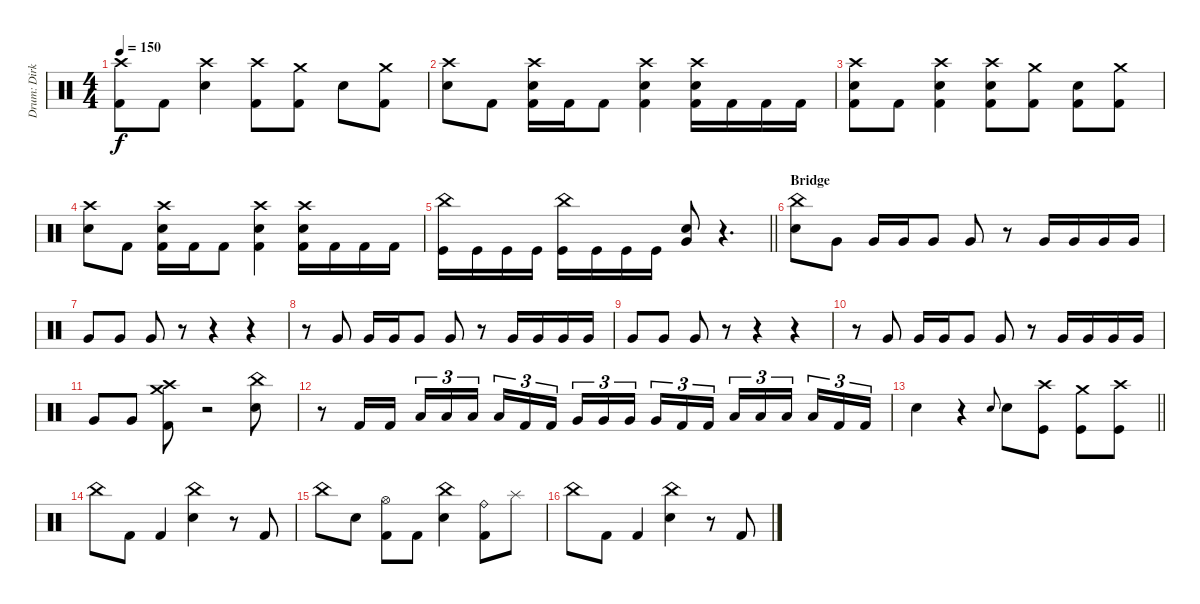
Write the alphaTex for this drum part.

\track ("Drum: Dirk" "Drum: Dirk") {instrument percussion}
\staff {score}
\articulation defaults
\ts (4 4)
\tempo 150
\clef neutral
\ks c
("Crash high (hit)" "Kick (hit) 2").8{dy f} "Kick (hit) 2".8 ("Crash high (hit)" "Electric Snare (hit)").4 ("Crash high (hit)" "Kick (hit) 2").8 ("Crash medium (hit)" "Kick (hit) 2").8 "Electric Snare (hit)".8 ("Crash medium (hit)" "Kick (hit) 2").8 |
("Crash high (hit)" "Electric Snare (hit)").8 "Kick (hit) 2".8 ("Crash high (hit)" "Electric Snare (hit)" "Kick (hit) 2").16 "Kick (hit) 2".16 "Kick (hit) 2".8 ("Crash high (hit)" "Electric Snare (hit)" "Kick (hit) 2").4 ("Crash high (hit)" "Electric Snare (hit)" "Kick (hit) 2").16 "Kick (hit) 2".16 "Kick (hit) 2".16 "Kick (hit) 2".16 |
("Crash high (hit)" "Electric Snare (hit)" "Kick (hit) 2").8 "Kick (hit) 2".8 ("Crash high (hit)" "Electric Snare (hit)" "Kick (hit) 2").4 ("Crash high (hit)" "Electric Snare (hit)" "Kick (hit) 2").8 ("Crash medium (hit)" "Kick (hit) 2").8 ("Electric Snare (hit)" "Kick (hit) 2").8 ("Crash medium (hit)" "Kick (hit) 2").8 |
("Crash high (hit)" "Electric Snare (hit)").8 "Kick (hit) 2".8 ("Crash high (hit)" "Electric Snare (hit)" "Kick (hit) 2").16 "Kick (hit) 2".16 "Kick (hit) 2".8 ("Crash high (hit)" "Electric Snare (hit)" "Kick (hit) 2").4 ("Crash high (hit)" "Electric Snare (hit)" "Kick (hit) 2").16 "Kick (hit) 2".16 "Kick (hit) 2".16 "Kick (hit) 2".16 |
\barLineRight lightlight
("China (hit)" "Kick (hit)").16 "Kick (hit)".16 "Kick (hit)".16 "Kick (hit)".16 ("China (hit)" "Kick (hit)").16 "Kick (hit)".16 "Kick (hit)".16 "Kick (hit)".16 ("Electric Snare (hit)" "Very Low Tom (hit)").8 r.4{d} |
\section ("" "Bridge")
("China (hit)" "Electric Snare (hit)").8 "Very Low Tom (hit)".8 "Very Low Tom (hit)".16 "Very Low Tom (hit)".16 "Very Low Tom (hit)".8 "Very Low Tom (hit)".8 r.8 "Very Low Tom (hit)".16 "Very Low Tom (hit)".16 "Very Low Tom (hit)".16 "Very Low Tom (hit)".16 |
"Very Low Tom (hit)".8 "Very Low Tom (hit)".8 "Very Low Tom (hit)".8 r.8 r.4 r.4 |
r.8 "Very Low Tom (hit)".8 "Very Low Tom (hit)".16 "Very Low Tom (hit)".16 "Very Low Tom (hit)".8 "Very Low Tom (hit)".8 r.8 "Very Low Tom (hit)".16 "Very Low Tom (hit)".16 "Very Low Tom (hit)".16 "Very Low Tom (hit)".16 |
"Very Low Tom (hit)".8 "Very Low Tom (hit)".8 "Very Low Tom (hit)".8 r.8 r.4 r.4 |
r.8 "Very Low Tom (hit)".8 "Very Low Tom (hit)".16 "Very Low Tom (hit)".16 "Very Low Tom (hit)".8 "Very Low Tom (hit)".8 r.8 "Very Low Tom (hit)".16 "Very Low Tom (hit)".16 "Very Low Tom (hit)".16 "Very Low Tom (hit)".16 |
"Very Low Tom (hit)".8 "Very Low Tom (hit)".8 ("Crash high (hit)" "Crash medium (hit)" "Kick (hit) 2").8 r.2 ("China (hit)" "Electric Snare (hit)").8 |
r.8 "Kick (hit) 2".16 "Kick (hit) 2".16 "Low Tom (hit)".16{tu (3 2)} "Low Tom (hit)".16{tu (3 2)} "Low Tom (hit)".16{tu (3 2) beam splitsecondary} "Low Tom (hit)".16{tu (3 2)} "Kick (hit) 2".16{tu (3 2)} "Kick (hit) 2".16{tu (3 2)} "Very Low Tom (hit)".16{tu (3 2)} "Very Low Tom (hit)".16{tu (3 2)} "Very Low Tom (hit)".16{tu (3 2) beam splitsecondary} "Very Low Tom (hit)".16{tu (3 2)} "Kick (hit) 2".16{tu (3 2)} "Kick (hit) 2".16{tu (3 2)} "Low Floor Tom (hit)".16{tu (3 2)} "Low Floor Tom (hit)".16{tu (3 2)} "Low Floor Tom (hit)".16{tu (3 2) beam splitsecondary} "Low Floor Tom (hit)".16{tu (3 2)} "Kick (hit) 2".16{tu (3 2)} "Kick (hit) 2".16{tu (3 2)} |
\barLineRight lightlight "Electric Snare (hit)".4
r.4 "Electric Snare (hit)".8{gr onbeat} "Electric Snare (hit)".8 ("Crash high (hit)" "Kick (hit)").8 ("Crash medium (hit)" "Kick (hit)").8 ("Crash high (hit)" "Kick (hit)").8 |
\section ("" "")
"China (hit)".8 "Kick (hit) 2".8 "Kick (hit) 2".4 ("China (hit)" "Electric Snare (hit)").4 r.8 "Kick (hit) 2".8 |
"China (hit)".8 "Electric Snare (hit)".8 ("Hi-Hat (open)" "Kick (hit) 2").8 "Kick (hit) 2".8 ("China (hit)" "Electric Snare (hit)").4 ("Ride (bell)" "Kick (hit) 2").8 "Splash (hit)".8 |
"China (hit)".8 "Kick (hit) 2".8 "Kick (hit) 2".4 ("China (hit)" "Electric Snare (hit)").4 r.8 "Kick (hit) 2".8
